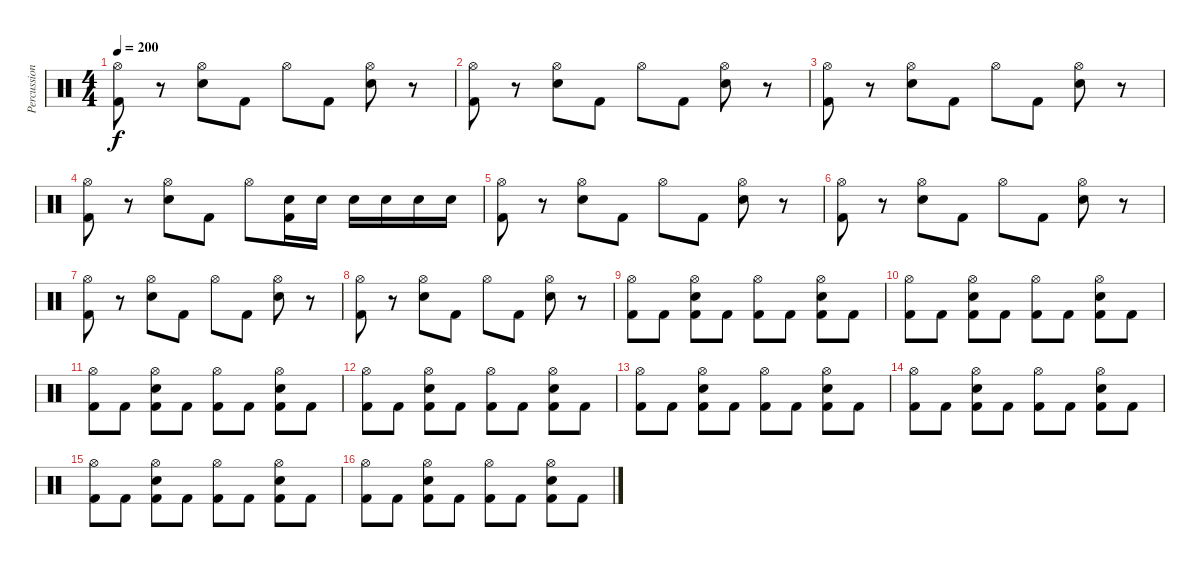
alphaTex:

\track ("Percussion" "Percussion") {instrument percussion}
\staff {score}
\articulation defaults
\ts (4 4)
\tempo 200
\clef neutral
\ks c
("Hi-Hat (open)" "Kick (hit) 2").8{dy f} r.8 ("Hi-Hat (open)" "Electric Snare (hit)").8 "Kick (hit) 2".8 "Hi-Hat (open)".8 "Kick (hit) 2".8 ("Hi-Hat (open)" "Electric Snare (hit)").8 r.8 |
("Hi-Hat (open)" "Kick (hit) 2").8 r.8 ("Hi-Hat (open)" "Electric Snare (hit)").8 "Kick (hit) 2".8 "Hi-Hat (open)".8 "Kick (hit) 2".8 ("Hi-Hat (open)" "Electric Snare (hit)").8 r.8 |
("Hi-Hat (open)" "Kick (hit) 2").8 r.8 ("Hi-Hat (open)" "Electric Snare (hit)").8 "Kick (hit) 2".8 "Hi-Hat (open)".8 "Kick (hit) 2".8 ("Hi-Hat (open)" "Electric Snare (hit)").8 r.8 |
("Hi-Hat (open)" "Kick (hit) 2").8 r.8 ("Hi-Hat (open)" "Electric Snare (hit)").8 "Kick (hit) 2".8 "Hi-Hat (open)".8 ("Electric Snare (hit)" "Kick (hit) 2").16 "Electric Snare (hit)".16 "Electric Snare (hit)".16 "Electric Snare (hit)".16 "Electric Snare (hit)".16 "Electric Snare (hit)".16 |
("Hi-Hat (open)" "Kick (hit) 2").8 r.8 ("Hi-Hat (open)" "Electric Snare (hit)").8 "Kick (hit) 2".8 "Hi-Hat (open)".8 "Kick (hit) 2".8 ("Hi-Hat (open)" "Electric Snare (hit)").8 r.8 |
("Hi-Hat (open)" "Kick (hit) 2").8 r.8 ("Hi-Hat (open)" "Electric Snare (hit)").8 "Kick (hit) 2".8 "Hi-Hat (open)".8 "Kick (hit) 2".8 ("Hi-Hat (open)" "Electric Snare (hit)").8 r.8 |
("Hi-Hat (open)" "Kick (hit) 2").8 r.8 ("Hi-Hat (open)" "Electric Snare (hit)").8 "Kick (hit) 2".8 "Hi-Hat (open)".8 "Kick (hit) 2".8 ("Hi-Hat (open)" "Electric Snare (hit)").8 r.8 |
("Hi-Hat (open)" "Kick (hit) 2").8 r.8 ("Hi-Hat (open)" "Electric Snare (hit)").8 "Kick (hit) 2".8 "Hi-Hat (open)".8 "Kick (hit) 2".8 ("Hi-Hat (open)" "Electric Snare (hit)").8 r.8 |
("Hi-Hat (open)" "Kick (hit) 2").8 "Kick (hit) 2".8 ("Hi-Hat (open)" "Electric Snare (hit)" "Kick (hit) 2").8 "Kick (hit) 2".8 ("Hi-Hat (open)" "Kick (hit) 2").8 "Kick (hit) 2".8 ("Hi-Hat (open)" "Electric Snare (hit)" "Kick (hit) 2").8 "Kick (hit) 2".8 |
("Hi-Hat (open)" "Kick (hit) 2").8 "Kick (hit) 2".8 ("Hi-Hat (open)" "Electric Snare (hit)" "Kick (hit) 2").8 "Kick (hit) 2".8 ("Hi-Hat (open)" "Kick (hit) 2").8 "Kick (hit) 2".8 ("Hi-Hat (open)" "Electric Snare (hit)" "Kick (hit) 2").8 "Kick (hit) 2".8 |
("Hi-Hat (open)" "Kick (hit) 2").8 "Kick (hit) 2".8 ("Hi-Hat (open)" "Electric Snare (hit)" "Kick (hit) 2").8 "Kick (hit) 2".8 ("Hi-Hat (open)" "Kick (hit) 2").8 "Kick (hit) 2".8 ("Hi-Hat (open)" "Electric Snare (hit)" "Kick (hit) 2").8 "Kick (hit) 2".8 |
("Hi-Hat (open)" "Kick (hit) 2").8 "Kick (hit) 2".8 ("Hi-Hat (open)" "Electric Snare (hit)" "Kick (hit) 2").8 "Kick (hit) 2".8 ("Hi-Hat (open)" "Kick (hit) 2").8 "Kick (hit) 2".8 ("Hi-Hat (open)" "Electric Snare (hit)" "Kick (hit) 2").8 "Kick (hit) 2".8 |
("Hi-Hat (open)" "Kick (hit) 2").8 "Kick (hit) 2".8 ("Hi-Hat (open)" "Electric Snare (hit)" "Kick (hit) 2").8 "Kick (hit) 2".8 ("Hi-Hat (open)" "Kick (hit) 2").8 "Kick (hit) 2".8 ("Hi-Hat (open)" "Electric Snare (hit)" "Kick (hit) 2").8 "Kick (hit) 2".8 |
("Hi-Hat (open)" "Kick (hit) 2").8 "Kick (hit) 2".8 ("Hi-Hat (open)" "Electric Snare (hit)" "Kick (hit) 2").8 "Kick (hit) 2".8 ("Hi-Hat (open)" "Kick (hit) 2").8 "Kick (hit) 2".8 ("Hi-Hat (open)" "Electric Snare (hit)" "Kick (hit) 2").8 "Kick (hit) 2".8 |
("Hi-Hat (open)" "Kick (hit) 2").8 "Kick (hit) 2".8 ("Hi-Hat (open)" "Electric Snare (hit)" "Kick (hit) 2").8 "Kick (hit) 2".8 ("Hi-Hat (open)" "Kick (hit) 2").8 "Kick (hit) 2".8 ("Hi-Hat (open)" "Electric Snare (hit)" "Kick (hit) 2").8 "Kick (hit) 2".8 |
("Hi-Hat (open)" "Kick (hit) 2").8 "Kick (hit) 2".8 ("Hi-Hat (open)" "Electric Snare (hit)" "Kick (hit) 2").8 "Kick (hit) 2".8 ("Hi-Hat (open)" "Kick (hit) 2").8 "Kick (hit) 2".8 ("Hi-Hat (open)" "Electric Snare (hit)" "Kick (hit) 2").8 "Kick (hit) 2".8
